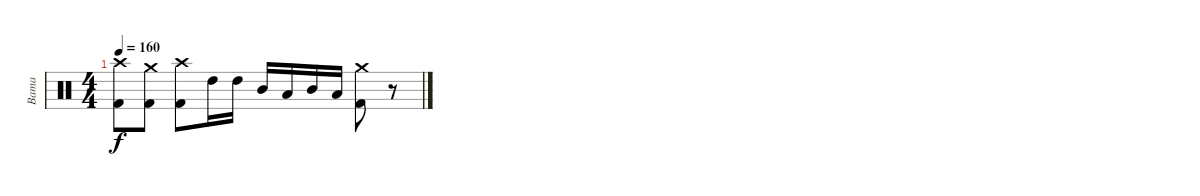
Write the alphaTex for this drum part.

\track ("Bama" "Bama") {instrument percussion}
\staff {score}
\articulation defaults
\ts (4 4)
\tempo 160
\clef neutral
\ks c
("Crash high (hit)" "Kick (hit) 2").8{dy f} ("Crash medium (hit)" "Kick (hit) 2").8 ("Crash high (hit)" "Kick (hit) 2").8 "High Tom (hit)".16 "High Tom (hit)".16 "Mid Tom (hit)".16 "Low Tom (hit)".16 "Mid Tom (hit)".16 "Low Tom (hit)".16 ("Crash medium (hit)" "Kick (hit) 2").8 r.8
